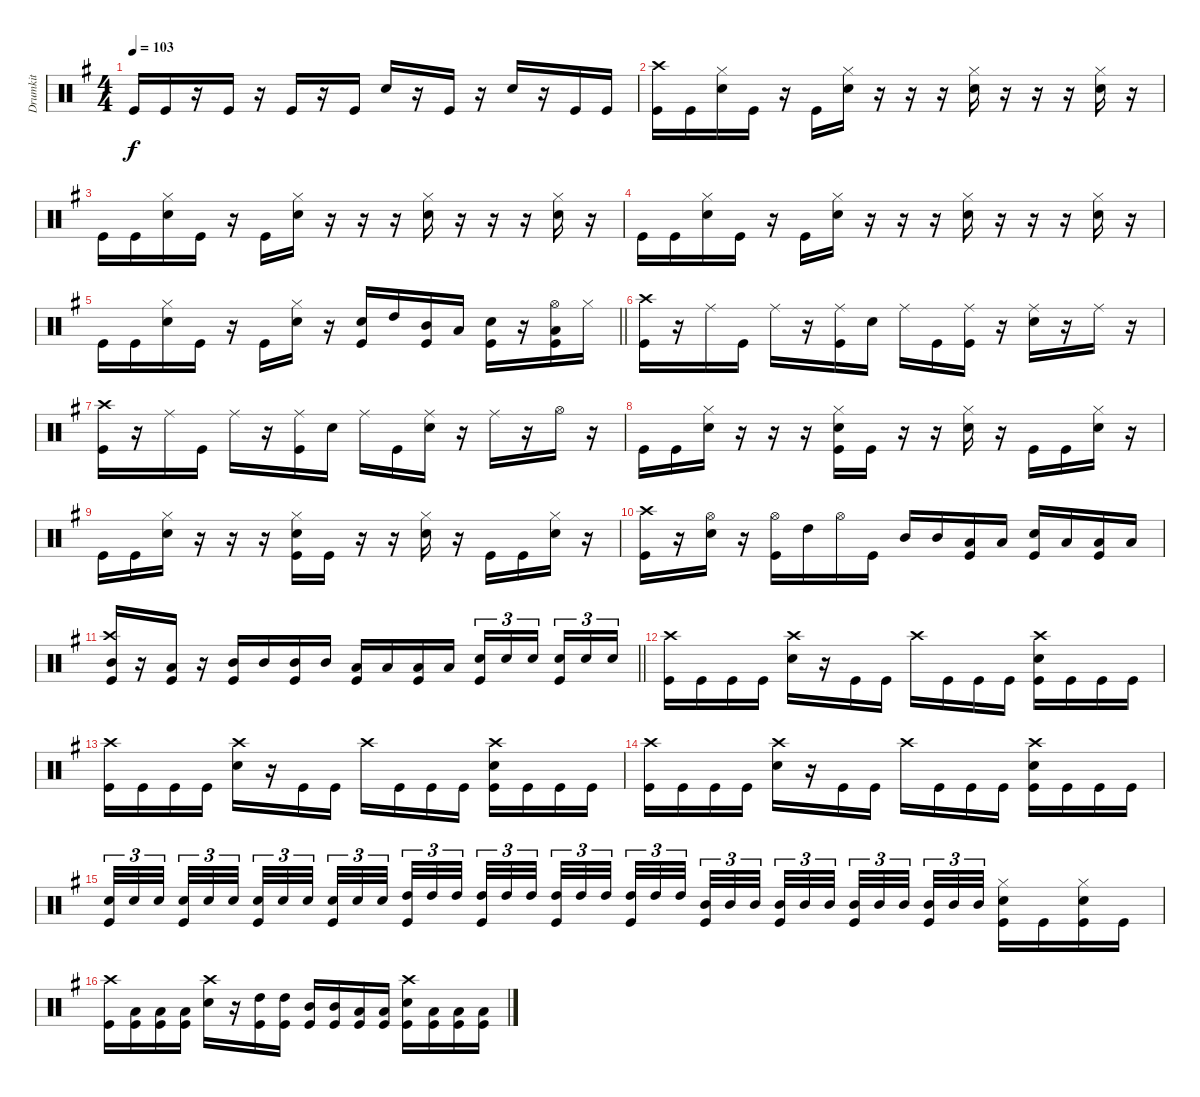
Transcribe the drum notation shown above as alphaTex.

\track ("Drumkit" "Drumkit") {instrument percussion}
\staff {score}
\articulation defaults
\ts (4 4)
\tempo 103
\clef neutral
\ks eminor "Kick (hit)".16{dy f} "Kick (hit)".16
r.16 "Kick (hit)".16 r.16 "Kick (hit)".16 r.16 "Kick (hit)".16 "Snare (hit) 2".16 r.16 "Kick (hit)".16 r.16 "Snare (hit) 2".16 r.16 "Kick (hit)".16 "Kick (hit)".16 |
("Crash high (hit)" "Kick (hit)").16 "Kick (hit)".16 ("Hi-Hat (closed)" "Snare (hit) 2").16 "Kick (hit)".16 r.16 "Kick (hit)".16 ("Hi-Hat (closed)" "Snare (hit) 2").16 r.16 r.16 r.16 ("Hi-Hat (closed)" "Snare (hit) 2").16 r.16 r.16 r.16 ("Hi-Hat (closed)" "Snare (hit) 2").16 r.16 |
"Kick (hit)".16 "Kick (hit)".16 ("Hi-Hat (closed)" "Snare (hit) 2").16 "Kick (hit)".16 r.16 "Kick (hit)".16 ("Hi-Hat (closed)" "Snare (hit) 2").16 r.16 r.16 r.16 ("Hi-Hat (closed)" "Snare (hit) 2").16 r.16 r.16 r.16 ("Hi-Hat (closed)" "Snare (hit) 2").16 r.16 |
"Kick (hit)".16 "Kick (hit)".16 ("Hi-Hat (closed)" "Snare (hit) 2").16 "Kick (hit)".16 r.16 "Kick (hit)".16 ("Hi-Hat (closed)" "Snare (hit) 2").16 r.16 r.16 r.16 ("Hi-Hat (closed)" "Snare (hit) 2").16 r.16 r.16 r.16 ("Hi-Hat (closed)" "Snare (hit) 2").16 r.16 |
\barLineRight lightlight "Kick (hit)".16 "Kick (hit)".16
("Hi-Hat (closed)" "Snare (hit) 2").16 "Kick (hit)".16 r.16 "Kick (hit)".16 ("Hi-Hat (closed)" "Snare (hit) 2").16 r.16 ("Snare (hit) 2" "Kick (hit)").16 "High Tom (hit)".16 ("Mid Tom (hit)" "Kick (hit)").16 "Low Tom (hit)".16 ("Snare (hit) 2" "Kick (hit)").16 r.16 ("Hi-Hat (open)" "Low Tom (hit)" "Kick (hit)").16 "Hi-Hat (closed)".16 |
("Crash high (hit)" "Kick (hit)").16 r.16 "Ride (middle)".16 "Kick (hit)".16 "Ride (middle)".16 r.16 ("Ride (middle)" "Kick (hit)").16 "Snare (hit) 2".16 "Ride (middle)".16 "Kick (hit)".16 ("Ride (middle)" "Kick (hit)").16 r.16 ("Ride (middle)" "Snare (hit) 2").16 r.16 "Ride (middle)".16 r.16 |
("Crash high (hit)" "Kick (hit)").16 r.16 "Ride (middle)".16 "Kick (hit)".16 "Ride (middle)".16 r.16 ("Ride (middle)" "Kick (hit)").16 "Snare (hit) 2".16 "Ride (middle)".16 "Kick (hit)".16 ("Ride (middle)" "Snare (hit) 2").16 r.16 "Ride (middle)".16 r.16 "Hi-Hat (open)".16 r.16 |
"Kick (hit)".16 "Kick (hit)".16 ("Hi-Hat (closed)" "Snare (hit) 2").16 r.16 r.16 r.16 ("Hi-Hat (closed)" "Snare (hit) 2" "Kick (hit)").16 "Kick (hit)".16 r.16 r.16 ("Hi-Hat (closed)" "Snare (hit) 2").16 r.16 "Kick (hit)".16 "Kick (hit)".16 ("Hi-Hat (closed)" "Snare (hit) 2").16 r.16 |
"Kick (hit)".16 "Kick (hit)".16 ("Hi-Hat (closed)" "Snare (hit) 2").16 r.16 r.16 r.16 ("Hi-Hat (closed)" "Snare (hit) 2" "Kick (hit)").16 "Kick (hit)".16 r.16 r.16 ("Hi-Hat (closed)" "Snare (hit) 2").16 r.16 "Kick (hit)".16 "Kick (hit)".16 ("Hi-Hat (closed)" "Snare (hit) 2").16 r.16 |
("Crash high (hit)" "Kick (hit)").16 r.16 ("Hi-Hat (open)" "Snare (hit) 2").16 r.16 ("Hi-Hat (open)" "Kick (hit)").16 "High Tom (hit)".16 "Hi-Hat (open)".16 "Kick (hit)".16 "Mid Tom (hit)".16 "Mid Tom (hit)".16 ("Low Tom (hit)" "Kick (hit)").16 "Low Tom (hit)".16 ("Snare (hit) 2" "Kick (hit)").16 "Low Tom (hit)".16 ("Low Tom (hit)" "Kick (hit)").16 "Low Tom (hit)".16 |
\barLineRight lightlight
("Crash high (hit)" "Mid Tom (hit)" "Kick (hit)").16 r.16 ("Low Tom (hit)" "Kick (hit)").16 r.16 ("Mid Tom (hit)" "Kick (hit)").16 "Mid Tom (hit)".16 ("Mid Tom (hit)" "Kick (hit)").16 "Mid Tom (hit)".16 ("Low Tom (hit)" "Kick (hit)").16 "Low Tom (hit)".16 ("Low Tom (hit)" "Kick (hit)").16 "Low Tom (hit)".16 ("Snare (hit) 2" "Kick (hit)").16{tu (3 2)} "Snare (hit) 2".16{tu (3 2)} "Snare (hit) 2".16{tu (3 2)} ("Snare (hit) 2" "Kick (hit)").16{tu (3 2)} "Snare (hit) 2".16{tu (3 2)} "Snare (hit) 2".16{tu (3 2)} |
("Crash high (hit)" "Kick (hit)").16 "Kick (hit)".16 "Kick (hit)".16 "Kick (hit)".16 ("Crash high (hit)" "Snare (hit) 2").16 r.16 "Kick (hit)".16 "Kick (hit)".16 "Crash high (hit)".16 "Kick (hit)".16 "Kick (hit)".16 "Kick (hit)".16 ("Crash high (hit)" "Snare (hit) 2" "Kick (hit)").16 "Kick (hit)".16 "Kick (hit)".16 "Kick (hit)".16 |
("Crash high (hit)" "Kick (hit)").16 "Kick (hit)".16 "Kick (hit)".16 "Kick (hit)".16 ("Crash high (hit)" "Snare (hit) 2").16 r.16 "Kick (hit)".16 "Kick (hit)".16 "Crash high (hit)".16 "Kick (hit)".16 "Kick (hit)".16 "Kick (hit)".16 ("Crash high (hit)" "Snare (hit) 2" "Kick (hit)").16 "Kick (hit)".16 "Kick (hit)".16 "Kick (hit)".16 |
("Crash high (hit)" "Kick (hit)").16 "Kick (hit)".16 "Kick (hit)".16 "Kick (hit)".16 ("Crash high (hit)" "Snare (hit) 2").16 r.16 "Kick (hit)".16 "Kick (hit)".16 "Crash high (hit)".16 "Kick (hit)".16 "Kick (hit)".16 "Kick (hit)".16 ("Crash high (hit)" "Snare (hit) 2" "Kick (hit)").16 "Kick (hit)".16 "Kick (hit)".16 "Kick (hit)".16 |
("Snare (hit) 2" "Kick (hit)").32{tu (3 2)} "Snare (hit) 2".32{tu (3 2)} "Snare (hit) 2".32{tu (3 2)} ("Snare (hit) 2" "Kick (hit)").32{tu (3 2)} "Snare (hit) 2".32{tu (3 2)} "Snare (hit) 2".32{tu (3 2)} ("Snare (hit) 2" "Kick (hit)").32{tu (3 2)} "Snare (hit) 2".32{tu (3 2)} "Snare (hit) 2".32{tu (3 2)} ("Snare (hit) 2" "Kick (hit)").32{tu (3 2)} "Snare (hit) 2".32{tu (3 2)} "Snare (hit) 2".32{tu (3 2)} ("High Tom (hit)" "Kick (hit)").32{tu (3 2)} "High Tom (hit)".32{tu (3 2)} "High Tom (hit)".32{tu (3 2)} ("High Tom (hit)" "Kick (hit)").32{tu (3 2)} "High Tom (hit)".32{tu (3 2)} "High Tom (hit)".32{tu (3 2)} ("High Tom (hit)" "Kick (hit)").32{tu (3 2)} "High Tom (hit)".32{tu (3 2)} "High Tom (hit)".32{tu (3 2)} ("High Tom (hit)" "Kick (hit)").32{tu (3 2)} "High Tom (hit)".32{tu (3 2)} "High Tom (hit)".32{tu (3 2)} ("Mid Tom (hit)" "Kick (hit)").32{tu (3 2)} "Mid Tom (hit)".32{tu (3 2)} "Mid Tom (hit)".32{tu (3 2)} ("Mid Tom (hit)" "Kick (hit)").32{tu (3 2)} "Mid Tom (hit)".32{tu (3 2)} "Mid Tom (hit)".32{tu (3 2)} ("Mid Tom (hit)" "Kick (hit)").32{tu (3 2)} "Mid Tom (hit)".32{tu (3 2)} "Mid Tom (hit)".32{tu (3 2)} ("Mid Tom (hit)" "Kick (hit)").32{tu (3 2)} "Mid Tom (hit)".32{tu (3 2)} "Mid Tom (hit)".32{tu (3 2)} ("Hi-Hat (closed)" "Snare (hit) 2" "Kick (hit)").16 "Kick (hit)".16 ("Hi-Hat (closed)" "Snare (hit) 2" "Kick (hit)").16 "Kick (hit)".16 |
("Crash high (hit)" "Kick (hit)").16 ("Low Tom (hit)" "Kick (hit)").16 ("Low Tom (hit)" "Kick (hit)").16 ("Low Tom (hit)" "Kick (hit)").16 ("Crash high (hit)" "Snare (hit) 2").16 r.16 ("High Tom (hit)" "Kick (hit)").16 ("High Tom (hit)" "Kick (hit)").16 ("Mid Tom (hit)" "Kick (hit)").16 ("Mid Tom (hit)" "Kick (hit)").16 ("Low Tom (hit)" "Kick (hit)").16 ("Low Tom (hit)" "Kick (hit)").16 ("Crash high (hit)" "Snare (hit) 2" "Kick (hit)").16 ("Low Tom (hit)" "Kick (hit)").16 ("Low Tom (hit)" "Kick (hit)").16 ("Low Tom (hit)" "Kick (hit)").16
